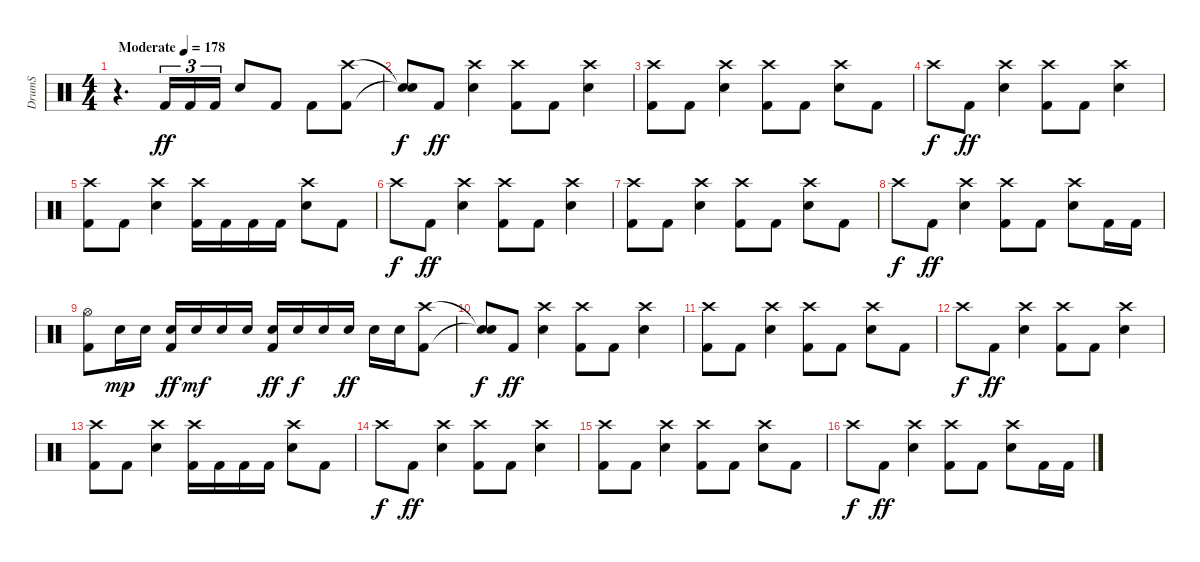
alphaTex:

\track ("DrumS" "DrumS") {instrument percussion}
\staff {score}
\articulation defaults
\ts (4 4)
\tempo (178 "Moderate")
\clef neutral
\ks c
r.4{d dy ff} "Kick (hit) 2".16{tu (3 2)} "Kick (hit) 2".16{tu (3 2)} "Kick (hit) 2".16{tu (3 2)} "Electric Snare (hit)".8 "Kick (hit) 2".8 "Kick (hit) 2".8 ("Crash high (hit)" "Kick (hit) 2").8 |
("Snare (hit)"{t} "Snare (hit)"{t}).8{dy f} "Kick (hit) 2".8{dy ff} ("Crash high (hit)" "Electric Snare (hit)").4 ("Crash high (hit)" "Kick (hit) 2").8 "Kick (hit) 2".8 ("Crash high (hit)" "Electric Snare (hit)").4 |
("Crash high (hit)" "Kick (hit) 2").8 "Kick (hit) 2".8 ("Crash high (hit)" "Electric Snare (hit)").4 ("Crash high (hit)" "Kick (hit) 2").8 "Kick (hit) 2".8 ("Crash high (hit)" "Electric Snare (hit)").8 "Kick (hit) 2".8 |
"Crash high (hit)".8{dy f} "Kick (hit) 2".8{dy ff} ("Crash high (hit)" "Electric Snare (hit)").4 ("Crash high (hit)" "Kick (hit) 2").8 "Kick (hit) 2".8 ("Crash high (hit)" "Electric Snare (hit)").4 |
("Crash high (hit)" "Kick (hit) 2").8 "Kick (hit) 2".8 ("Crash high (hit)" "Electric Snare (hit)").4 ("Crash high (hit)" "Kick (hit) 2").16 "Kick (hit) 2".16 "Kick (hit) 2".16 "Kick (hit) 2".16 ("Crash high (hit)" "Electric Snare (hit)").8 "Kick (hit) 2".8 |
"Crash high (hit)".8{dy f} "Kick (hit) 2".8{dy ff} ("Crash high (hit)" "Electric Snare (hit)").4 ("Crash high (hit)" "Kick (hit) 2").8 "Kick (hit) 2".8 ("Crash high (hit)" "Electric Snare (hit)").4 |
("Crash high (hit)" "Kick (hit) 2").8 "Kick (hit) 2".8 ("Crash high (hit)" "Electric Snare (hit)").4 ("Crash high (hit)" "Kick (hit) 2").8 "Kick (hit) 2".8 ("Crash high (hit)" "Electric Snare (hit)").8 "Kick (hit) 2".8 |
"Crash high (hit)".8{dy f} "Kick (hit) 2".8{dy ff} ("Crash high (hit)" "Electric Snare (hit)").4 ("Crash high (hit)" "Kick (hit) 2").8 "Kick (hit) 2".8 ("Crash high (hit)" "Electric Snare (hit)").8 "Kick (hit) 2".16 "Kick (hit) 2".16 |
("Hi-Hat (open)" "Kick (hit) 2").8 "Electric Snare (hit)".16{dy mp} "Electric Snare (hit)".16 ("Electric Snare (hit)" "Kick (hit) 2").16{dy ff} "Electric Snare (hit)".16{dy mf} "Electric Snare (hit)".16 "Electric Snare (hit)".16 ("Electric Snare (hit)" "Kick (hit) 2").16{dy ff} "Electric Snare (hit)".16{dy f} "Electric Snare (hit)".16 "Electric Snare (hit)".16{dy ff} "Electric Snare (hit)".16 "Electric Snare (hit)".16 ("Crash high (hit)" "Kick (hit) 2").8 |
("Snare (hit)"{t} "Snare (hit)"{t}).8{dy f} "Kick (hit) 2".8{dy ff} ("Crash high (hit)" "Electric Snare (hit)").4 ("Crash high (hit)" "Kick (hit) 2").8 "Kick (hit) 2".8 ("Crash high (hit)" "Electric Snare (hit)").4 |
("Crash high (hit)" "Kick (hit) 2").8 "Kick (hit) 2".8 ("Crash high (hit)" "Electric Snare (hit)").4 ("Crash high (hit)" "Kick (hit) 2").8 "Kick (hit) 2".8 ("Crash high (hit)" "Electric Snare (hit)").8 "Kick (hit) 2".8 |
"Crash high (hit)".8{dy f} "Kick (hit) 2".8{dy ff} ("Crash high (hit)" "Electric Snare (hit)").4 ("Crash high (hit)" "Kick (hit) 2").8 "Kick (hit) 2".8 ("Crash high (hit)" "Electric Snare (hit)").4 |
("Crash high (hit)" "Kick (hit) 2").8 "Kick (hit) 2".8 ("Crash high (hit)" "Electric Snare (hit)").4 ("Crash high (hit)" "Kick (hit) 2").16 "Kick (hit) 2".16 "Kick (hit) 2".16 "Kick (hit) 2".16 ("Crash high (hit)" "Electric Snare (hit)").8 "Kick (hit) 2".8 |
"Crash high (hit)".8{dy f} "Kick (hit) 2".8{dy ff} ("Crash high (hit)" "Electric Snare (hit)").4 ("Crash high (hit)" "Kick (hit) 2").8 "Kick (hit) 2".8 ("Crash high (hit)" "Electric Snare (hit)").4 |
("Crash high (hit)" "Kick (hit) 2").8 "Kick (hit) 2".8 ("Crash high (hit)" "Electric Snare (hit)").4 ("Crash high (hit)" "Kick (hit) 2").8 "Kick (hit) 2".8 ("Crash high (hit)" "Electric Snare (hit)").8 "Kick (hit) 2".8 |
"Crash high (hit)".8{dy f} "Kick (hit) 2".8{dy ff} ("Crash high (hit)" "Electric Snare (hit)").4 ("Crash high (hit)" "Kick (hit) 2").8 "Kick (hit) 2".8 ("Crash high (hit)" "Electric Snare (hit)").8 "Kick (hit) 2".16 "Kick (hit) 2".16
